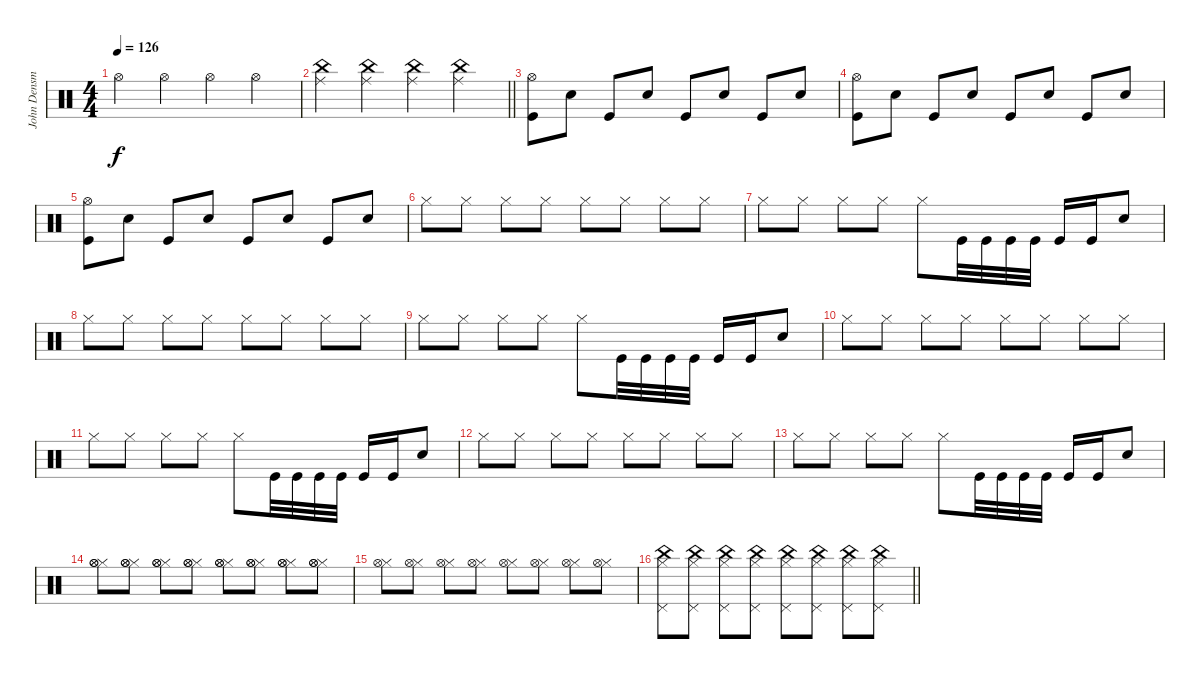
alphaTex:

\track ("John Densmore" "John Densm") {instrument percussion}
\staff {score}
\articulation defaults
\ts (4 4)
\tempo 126
\clef neutral
\ks c "Hi-Hat (open)".4{dy f} "Hi-Hat (open)".4 "Hi-Hat (open)".4 "Hi-Hat (open)".4
|
\barLineRight lightlight
("China (hit)" "Ride (middle)").4 ("China (hit)" "Ride (middle)").4 ("China (hit)" "Ride (middle)").4 ("China (hit)" "Ride (middle)").4 |
("Kick (hit)" "Hi-Hat (open)").8 "Snare (hit) 2".8 "Kick (hit)".8 "Snare (hit) 2".8 "Kick (hit)".8 "Snare (hit) 2".8 "Kick (hit)".8 "Snare (hit) 2".8 |
("Kick (hit)" "Hi-Hat (open)").8 "Snare (hit) 2".8 "Kick (hit)".8 "Snare (hit) 2".8 "Kick (hit)".8 "Snare (hit) 2".8 "Kick (hit)".8 "Snare (hit) 2".8 |
("Kick (hit)" "Hi-Hat (open)").8 "Snare (hit) 2".8 "Kick (hit)".8 "Snare (hit) 2".8 "Kick (hit)".8 "Snare (hit) 2".8 "Kick (hit)".8 "Snare (hit) 2".8 |
"Hi-Hat (closed)".8 "Hi-Hat (closed)".8 "Hi-Hat (closed)".8 "Hi-Hat (closed)".8 "Hi-Hat (closed)".8 "Hi-Hat (closed)".8 "Hi-Hat (closed)".8 "Hi-Hat (closed)".8 |
"Hi-Hat (closed)".8 "Hi-Hat (closed)".8 "Hi-Hat (closed)".8 "Hi-Hat (closed)".8 "Hi-Hat (closed)".8 "Kick (hit)".32 "Kick (hit)".32 "Kick (hit)".32 "Kick (hit)".32 "Kick (hit)".16 "Kick (hit)".16 "Snare (hit) 2".8 |
"Hi-Hat (closed)".8 "Hi-Hat (closed)".8 "Hi-Hat (closed)".8 "Hi-Hat (closed)".8 "Hi-Hat (closed)".8 "Hi-Hat (closed)".8 "Hi-Hat (closed)".8 "Hi-Hat (closed)".8 |
"Hi-Hat (closed)".8 "Hi-Hat (closed)".8 "Hi-Hat (closed)".8 "Hi-Hat (closed)".8 "Hi-Hat (closed)".8 "Kick (hit)".32 "Kick (hit)".32 "Kick (hit)".32 "Kick (hit)".32 "Kick (hit)".16 "Kick (hit)".16 "Snare (hit) 2".8 |
"Hi-Hat (closed)".8 "Hi-Hat (closed)".8 "Hi-Hat (closed)".8 "Hi-Hat (closed)".8 "Hi-Hat (closed)".8 "Hi-Hat (closed)".8 "Hi-Hat (closed)".8 "Hi-Hat (closed)".8 |
"Hi-Hat (closed)".8 "Hi-Hat (closed)".8 "Hi-Hat (closed)".8 "Hi-Hat (closed)".8 "Hi-Hat (closed)".8 "Kick (hit)".32 "Kick (hit)".32 "Kick (hit)".32 "Kick (hit)".32 "Kick (hit)".16 "Kick (hit)".16 "Snare (hit) 2".8 |
"Hi-Hat (closed)".8 "Hi-Hat (closed)".8 "Hi-Hat (closed)".8 "Hi-Hat (closed)".8 "Hi-Hat (closed)".8 "Hi-Hat (closed)".8 "Hi-Hat (closed)".8 "Hi-Hat (closed)".8 |
"Hi-Hat (closed)".8 "Hi-Hat (closed)".8 "Hi-Hat (closed)".8 "Hi-Hat (closed)".8 "Hi-Hat (closed)".8 "Kick (hit)".32 "Kick (hit)".32 "Kick (hit)".32 "Kick (hit)".32 "Kick (hit)".16 "Kick (hit)".16 "Snare (hit) 2".8 |
("Hi-Hat (closed)" "Hi-Hat (open)" "Hi-Hat (open)").8 ("Hi-Hat (closed)" "Hi-Hat (open)" "Hi-Hat (open)").8 ("Hi-Hat (closed)" "Hi-Hat (open)" "Hi-Hat (open)").8 ("Hi-Hat (closed)" "Hi-Hat (open)" "Hi-Hat (open)").8 ("Hi-Hat (closed)" "Hi-Hat (open)" "Hi-Hat (open)").8 ("Hi-Hat (closed)" "Hi-Hat (open)" "Hi-Hat (open)").8 ("Hi-Hat (closed)" "Hi-Hat (open)" "Hi-Hat (open)").8 ("Hi-Hat (closed)" "Hi-Hat (open)" "Hi-Hat (open)").8 |
("Hi-Hat (closed)" "Hi-Hat (open)").8 ("Hi-Hat (closed)" "Hi-Hat (open)").8 ("Hi-Hat (closed)" "Hi-Hat (open)").8 ("Hi-Hat (closed)" "Hi-Hat (open)").8 ("Hi-Hat (closed)" "Hi-Hat (open)").8 ("Hi-Hat (closed)" "Hi-Hat (open)").8 ("Hi-Hat (closed)" "Hi-Hat (open)").8 ("Hi-Hat (closed)" "Hi-Hat (open)").8 |
\barLineRight lightlight
("Pedal Hi-Hat (hit)" "Hi-Hat (closed)" "China (hit)").8 ("Pedal Hi-Hat (hit)" "Hi-Hat (closed)" "China (hit)").8 ("Pedal Hi-Hat (hit)" "Hi-Hat (closed)" "China (hit)").8 ("Pedal Hi-Hat (hit)" "Hi-Hat (closed)" "China (hit)").8 ("Pedal Hi-Hat (hit)" "Hi-Hat (closed)" "China (hit)").8 ("Pedal Hi-Hat (hit)" "Hi-Hat (closed)" "China (hit)").8 ("Pedal Hi-Hat (hit)" "Hi-Hat (closed)" "China (hit)").8 ("Pedal Hi-Hat (hit)" "Hi-Hat (closed)" "China (hit)").8
